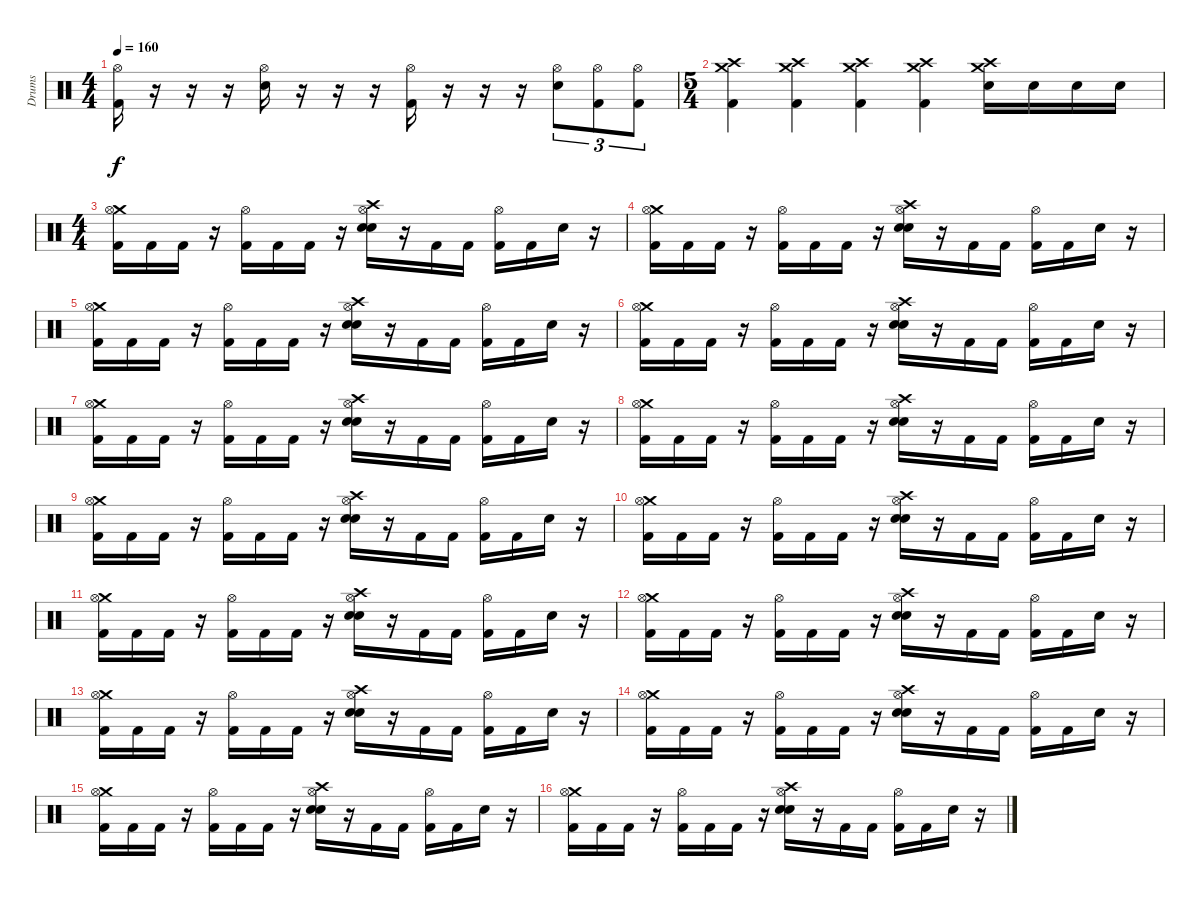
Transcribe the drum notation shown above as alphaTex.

\track ("Drums" "Drums") {instrument percussion}
\staff {score}
\articulation defaults
\ts (4 4)
\tempo 160
\clef neutral
\ks c
("Hi-Hat (open)" "Kick (hit) 2").16{dy f} r.16 r.16 r.16 ("Hi-Hat (open)" "Electric Snare (hit)").16 r.16 r.16 r.16 ("Hi-Hat (open)" "Kick (hit) 2").16 r.16 r.16 r.16 ("Hi-Hat (open)" "Electric Snare (hit)").8{tu (3 2)} ("Hi-Hat (open)" "Kick (hit) 2").8{tu (3 2)} ("Hi-Hat (open)" "Kick (hit) 2").8{tu (3 2)} |
\ts (5 4)
("Crash medium (hit)" "Crash high (hit)" "Kick (hit) 2").4 ("Crash high (hit)" "Crash medium (hit)" "Kick (hit) 2").4 ("Crash medium (hit)" "Crash high (hit)" "Kick (hit) 2").4 ("Crash medium (hit)" "Crash high (hit)" "Kick (hit) 2").4 ("Crash high (hit)" "Crash medium (hit)" "Electric Snare (hit)").16 "Electric Snare (hit)".16 "Electric Snare (hit)".16 "Electric Snare (hit)".16 |
\ts (4 4)
("Crash medium (hit)" "Hi-Hat (open)" "Kick (hit) 2").16 "Kick (hit) 2".16 "Kick (hit) 2".16 r.16 ("Hi-Hat (open)" "Kick (hit) 2").16 "Kick (hit) 2".16 "Kick (hit) 2".16 r.16 ("Crash high (hit)" "Hi-Hat (open)" "Snare (hit) 2" "Electric Snare (hit)").16 r.16 "Kick (hit) 2".16 "Kick (hit) 2".16 ("Hi-Hat (open)" "Kick (hit) 2").16 "Kick (hit) 2".16 "Electric Snare (hit)".16 r.16 |
("Crash medium (hit)" "Hi-Hat (open)" "Kick (hit) 2").16 "Kick (hit) 2".16 "Kick (hit) 2".16 r.16 ("Hi-Hat (open)" "Kick (hit) 2").16 "Kick (hit) 2".16 "Kick (hit) 2".16 r.16 ("Crash high (hit)" "Hi-Hat (open)" "Snare (hit) 2" "Electric Snare (hit)").16 r.16 "Kick (hit) 2".16 "Kick (hit) 2".16 ("Hi-Hat (open)" "Kick (hit) 2").16 "Kick (hit) 2".16 "Electric Snare (hit)".16 r.16 |
("Crash medium (hit)" "Hi-Hat (open)" "Kick (hit) 2").16 "Kick (hit) 2".16 "Kick (hit) 2".16 r.16 ("Hi-Hat (open)" "Kick (hit) 2").16 "Kick (hit) 2".16 "Kick (hit) 2".16 r.16 ("Crash high (hit)" "Hi-Hat (open)" "Snare (hit) 2" "Electric Snare (hit)").16 r.16 "Kick (hit) 2".16 "Kick (hit) 2".16 ("Hi-Hat (open)" "Kick (hit) 2").16 "Kick (hit) 2".16 "Electric Snare (hit)".16 r.16 |
("Crash medium (hit)" "Hi-Hat (open)" "Kick (hit) 2").16 "Kick (hit) 2".16 "Kick (hit) 2".16 r.16 ("Hi-Hat (open)" "Kick (hit) 2").16 "Kick (hit) 2".16 "Kick (hit) 2".16 r.16 ("Crash high (hit)" "Hi-Hat (open)" "Snare (hit) 2" "Electric Snare (hit)").16 r.16 "Kick (hit) 2".16 "Kick (hit) 2".16 ("Hi-Hat (open)" "Kick (hit) 2").16 "Kick (hit) 2".16 "Electric Snare (hit)".16 r.16 |
("Crash medium (hit)" "Hi-Hat (open)" "Kick (hit) 2").16 "Kick (hit) 2".16 "Kick (hit) 2".16 r.16 ("Hi-Hat (open)" "Kick (hit) 2").16 "Kick (hit) 2".16 "Kick (hit) 2".16 r.16 ("Crash high (hit)" "Hi-Hat (open)" "Snare (hit) 2" "Electric Snare (hit)").16 r.16 "Kick (hit) 2".16 "Kick (hit) 2".16 ("Hi-Hat (open)" "Kick (hit) 2").16 "Kick (hit) 2".16 "Electric Snare (hit)".16 r.16 |
("Crash medium (hit)" "Hi-Hat (open)" "Kick (hit) 2").16 "Kick (hit) 2".16 "Kick (hit) 2".16 r.16 ("Hi-Hat (open)" "Kick (hit) 2").16 "Kick (hit) 2".16 "Kick (hit) 2".16 r.16 ("Crash high (hit)" "Hi-Hat (open)" "Snare (hit) 2" "Electric Snare (hit)").16 r.16 "Kick (hit) 2".16 "Kick (hit) 2".16 ("Hi-Hat (open)" "Kick (hit) 2").16 "Kick (hit) 2".16 "Electric Snare (hit)".16 r.16 |
("Crash medium (hit)" "Hi-Hat (open)" "Kick (hit) 2").16 "Kick (hit) 2".16 "Kick (hit) 2".16 r.16 ("Hi-Hat (open)" "Kick (hit) 2").16 "Kick (hit) 2".16 "Kick (hit) 2".16 r.16 ("Crash high (hit)" "Hi-Hat (open)" "Snare (hit) 2" "Electric Snare (hit)").16 r.16 "Kick (hit) 2".16 "Kick (hit) 2".16 ("Hi-Hat (open)" "Kick (hit) 2").16 "Kick (hit) 2".16 "Electric Snare (hit)".16 r.16 |
("Crash medium (hit)" "Hi-Hat (open)" "Kick (hit) 2").16 "Kick (hit) 2".16 "Kick (hit) 2".16 r.16 ("Hi-Hat (open)" "Kick (hit) 2").16 "Kick (hit) 2".16 "Kick (hit) 2".16 r.16 ("Crash high (hit)" "Hi-Hat (open)" "Snare (hit) 2" "Electric Snare (hit)").16 r.16 "Kick (hit) 2".16 "Kick (hit) 2".16 ("Hi-Hat (open)" "Kick (hit) 2").16 "Kick (hit) 2".16 "Electric Snare (hit)".16 r.16 |
("Crash medium (hit)" "Hi-Hat (open)" "Kick (hit) 2").16 "Kick (hit) 2".16 "Kick (hit) 2".16 r.16 ("Hi-Hat (open)" "Kick (hit) 2").16 "Kick (hit) 2".16 "Kick (hit) 2".16 r.16 ("Crash high (hit)" "Hi-Hat (open)" "Snare (hit) 2" "Electric Snare (hit)").16 r.16 "Kick (hit) 2".16 "Kick (hit) 2".16 ("Hi-Hat (open)" "Kick (hit) 2").16 "Kick (hit) 2".16 "Electric Snare (hit)".16 r.16 |
("Crash medium (hit)" "Hi-Hat (open)" "Kick (hit) 2").16 "Kick (hit) 2".16 "Kick (hit) 2".16 r.16 ("Hi-Hat (open)" "Kick (hit) 2").16 "Kick (hit) 2".16 "Kick (hit) 2".16 r.16 ("Crash high (hit)" "Hi-Hat (open)" "Snare (hit) 2" "Electric Snare (hit)").16 r.16 "Kick (hit) 2".16 "Kick (hit) 2".16 ("Hi-Hat (open)" "Kick (hit) 2").16 "Kick (hit) 2".16 "Electric Snare (hit)".16 r.16 |
("Crash medium (hit)" "Hi-Hat (open)" "Kick (hit) 2").16 "Kick (hit) 2".16 "Kick (hit) 2".16 r.16 ("Hi-Hat (open)" "Kick (hit) 2").16 "Kick (hit) 2".16 "Kick (hit) 2".16 r.16 ("Crash high (hit)" "Hi-Hat (open)" "Snare (hit) 2" "Electric Snare (hit)").16 r.16 "Kick (hit) 2".16 "Kick (hit) 2".16 ("Hi-Hat (open)" "Kick (hit) 2").16 "Kick (hit) 2".16 "Electric Snare (hit)".16 r.16 |
("Crash medium (hit)" "Hi-Hat (open)" "Kick (hit) 2").16 "Kick (hit) 2".16 "Kick (hit) 2".16 r.16 ("Hi-Hat (open)" "Kick (hit) 2").16 "Kick (hit) 2".16 "Kick (hit) 2".16 r.16 ("Crash high (hit)" "Hi-Hat (open)" "Snare (hit) 2" "Electric Snare (hit)").16 r.16 "Kick (hit) 2".16 "Kick (hit) 2".16 ("Hi-Hat (open)" "Kick (hit) 2").16 "Kick (hit) 2".16 "Electric Snare (hit)".16 r.16 |
("Crash medium (hit)" "Hi-Hat (open)" "Kick (hit) 2").16 "Kick (hit) 2".16 "Kick (hit) 2".16 r.16 ("Hi-Hat (open)" "Kick (hit) 2").16 "Kick (hit) 2".16 "Kick (hit) 2".16 r.16 ("Crash high (hit)" "Hi-Hat (open)" "Snare (hit) 2" "Electric Snare (hit)").16 r.16 "Kick (hit) 2".16 "Kick (hit) 2".16 ("Hi-Hat (open)" "Kick (hit) 2").16 "Kick (hit) 2".16 "Electric Snare (hit)".16 r.16 |
("Crash medium (hit)" "Hi-Hat (open)" "Kick (hit) 2").16 "Kick (hit) 2".16 "Kick (hit) 2".16 r.16 ("Hi-Hat (open)" "Kick (hit) 2").16 "Kick (hit) 2".16 "Kick (hit) 2".16 r.16 ("Crash high (hit)" "Hi-Hat (open)" "Snare (hit) 2" "Electric Snare (hit)").16 r.16 "Kick (hit) 2".16 "Kick (hit) 2".16 ("Hi-Hat (open)" "Kick (hit) 2").16 "Kick (hit) 2".16 "Electric Snare (hit)".16 r.16
